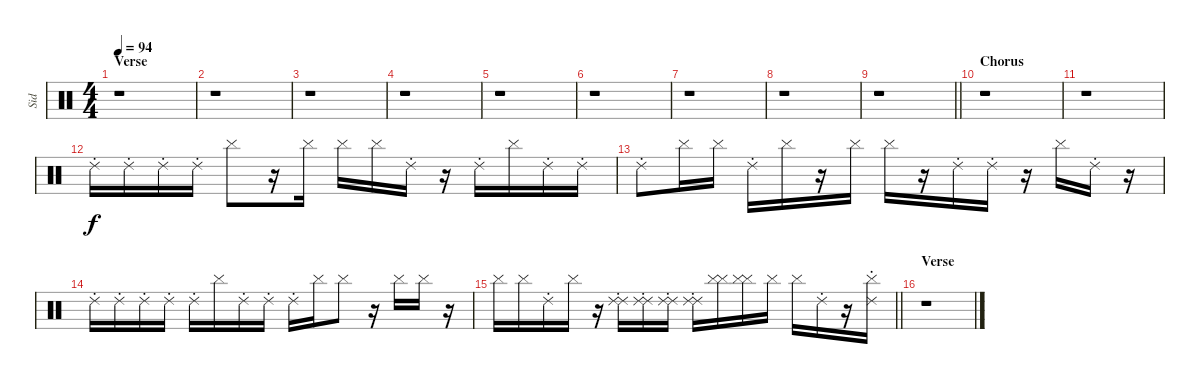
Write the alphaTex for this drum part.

\track ("Sid" "Sid") {instrument percussion}
\staff {score}
\articulation defaults
\ts (4 4)
\section ("" "Verse")
\tempo 94
\clef neutral
\ks c
r.1{dy f} |
r.1 |
r.1 |
r.1 |
r.1 |
r.1 |
r.1 |
r.1 |
\barLineRight lightlight
r.1 |
\section ("" "Chorus")
r.1 |
r.1 |
"Ride (choke) 2".16 "Ride (choke) 2".16 "Ride (choke) 2".16 "Ride (choke) 2".16 "Cymbal (hit)".8 r.16 "Cymbal (hit)".16 "Cymbal (hit)".16 "Cymbal (hit)".16 "Ride (choke) 2".16 r.16 "Ride (choke) 2".16 "Cymbal (hit)".16 "Ride (choke) 2".16 "Ride (choke) 2".16 |
"Ride (choke) 2".8 "Cymbal (hit)".16 "Cymbal (hit)".16 "Ride (choke) 2".16 "Cymbal (hit)".16 r.16 "Cymbal (hit)".16 "Cymbal (hit)".16 r.16 "Ride (choke) 2".16 "Ride (choke) 2".16 r.16 "Cymbal (hit)".16 "Ride (choke) 2".16 r.16 |
"Ride (choke) 2".16 "Ride (choke) 2".16 "Ride (choke) 2".16 "Ride (choke) 2".16 "Ride (choke) 2".16 "Cymbal (hit)".16 "Ride (choke) 2".16 "Ride (choke) 2".16 "Ride (choke) 2".16 "Cymbal (hit)".16 "Cymbal (hit)".8 r.16 "Cymbal (hit)".16 "Cymbal (hit)".16 r.16 |
\barLineRight lightlight "Cymbal (hit)".16 "Cymbal (hit)".16 "Ride (choke) 2".16 "Cymbal (hit)".16
r.16 ("Ride (choke) 2" "Ride (choke) 2").16 ("Ride (choke) 2" "Ride (choke) 2").16 ("Ride (choke) 2" "Ride (choke) 2").16 ("Ride (choke) 2" "Ride (choke) 2").16 ("Cymbal (hit)" "Cymbal (hit)").16 ("Cymbal (hit)" "Cymbal (hit)").16 "Cymbal (hit)".16 "Cymbal (hit)".16 "Ride (choke) 2".16 r.16 ("Cymbal (hit)" "Ride (choke) 2").16 |
\section ("" "Verse")
r.1
